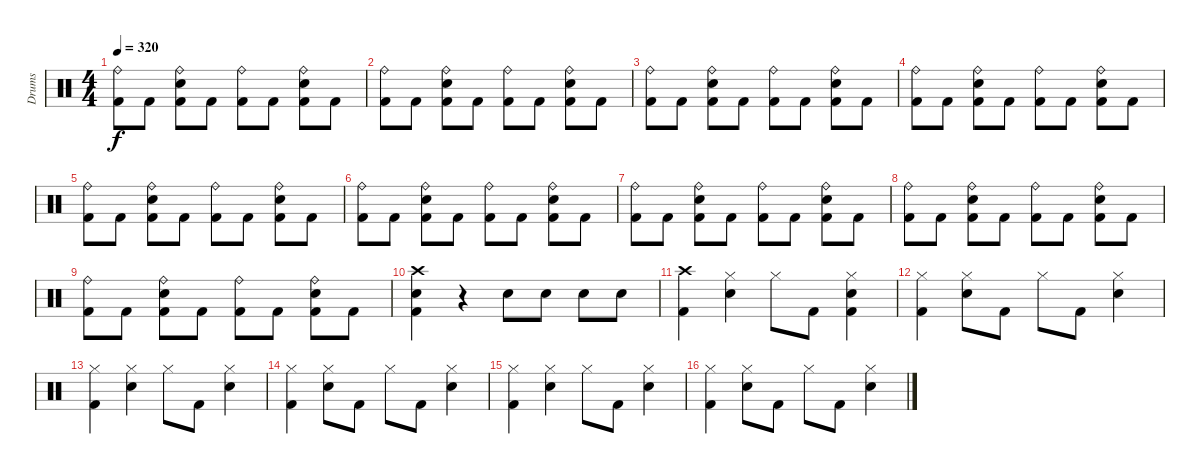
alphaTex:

\track ("Drums" "Drums") {instrument percussion}
\staff {score}
\articulation defaults
\ts (4 4)
\tempo 320
\clef neutral
\ks c
("Ride (bell)" "Kick (hit) 2").8{dy f} "Kick (hit) 2".8 ("Kick (hit) 2" "Ride (bell)" "Snare (hit) 2").8 "Kick (hit) 2".8 ("Ride (bell)" "Kick (hit) 2").8 "Kick (hit) 2".8 ("Ride (bell)" "Kick (hit) 2" "Snare (hit) 2").8 "Kick (hit) 2".8 |
("Kick (hit) 2" "Ride (bell)").8 "Kick (hit) 2".8 ("Ride (bell)" "Kick (hit) 2" "Snare (hit) 2").8 "Kick (hit) 2".8 ("Kick (hit) 2" "Ride (bell)").8 "Kick (hit) 2".8 ("Kick (hit) 2" "Snare (hit) 2" "Ride (bell)").8 "Kick (hit) 2".8 |
("Ride (bell)" "Kick (hit) 2").8 "Kick (hit) 2".8 ("Snare (hit) 2" "Ride (bell)" "Kick (hit) 2").8 "Kick (hit) 2".8 ("Ride (bell)" "Kick (hit) 2").8 "Kick (hit) 2".8 ("Snare (hit) 2" "Ride (bell)" "Kick (hit) 2").8 "Kick (hit) 2".8 |
("Ride (bell)" "Kick (hit) 2").8 "Kick (hit) 2".8 ("Kick (hit) 2" "Ride (bell)" "Snare (hit) 2").8 "Kick (hit) 2".8 ("Ride (bell)" "Kick (hit) 2").8 "Kick (hit) 2".8 ("Kick (hit) 2" "Ride (bell)" "Snare (hit) 2").8 "Kick (hit) 2".8 |
("Ride (bell)" "Kick (hit) 2").8 "Kick (hit) 2".8 ("Kick (hit) 2" "Snare (hit) 2" "Ride (bell)").8 "Kick (hit) 2".8 ("Ride (bell)" "Kick (hit) 2").8 "Kick (hit) 2".8 ("Snare (hit) 2" "Kick (hit) 2" "Ride (bell)").8 "Kick (hit) 2".8 |
("Ride (bell)" "Kick (hit) 2").8 "Kick (hit) 2".8 ("Ride (bell)" "Kick (hit) 2" "Snare (hit) 2").8 "Kick (hit) 2".8 ("Kick (hit) 2" "Ride (bell)").8 "Kick (hit) 2".8 ("Kick (hit) 2" "Ride (bell)" "Snare (hit) 2").8 "Kick (hit) 2".8 |
("Ride (bell)" "Kick (hit) 2").8 "Kick (hit) 2".8 ("Ride (bell)" "Kick (hit) 2" "Snare (hit) 2").8 "Kick (hit) 2".8 ("Ride (bell)" "Kick (hit) 2").8 "Kick (hit) 2".8 ("Kick (hit) 2" "Ride (bell)" "Snare (hit) 2").8 "Kick (hit) 2".8 |
("Ride (bell)" "Kick (hit) 2").8 "Kick (hit) 2".8 ("Ride (bell)" "Kick (hit) 2" "Snare (hit) 2").8 "Kick (hit) 2".8 ("Ride (bell)" "Kick (hit) 2").8 "Kick (hit) 2".8 ("Kick (hit) 2" "Ride (bell)" "Snare (hit) 2").8 "Kick (hit) 2".8 |
("Ride (bell)" "Kick (hit) 2").8 "Kick (hit) 2".8 ("Snare (hit) 2" "Kick (hit) 2" "Ride (bell)").8 "Kick (hit) 2".8 ("Ride (bell)" "Kick (hit) 2").8 "Kick (hit) 2".8 ("Ride (bell)" "Kick (hit) 2" "Snare (hit) 2").8 "Kick (hit) 2".8 |
("Kick (hit) 2" "Snare (hit) 2" "Crash high (hit)").4 r.4 "Snare (hit) 2".8 "Snare (hit) 2".8 "Snare (hit) 2".8 "Snare (hit) 2".8 |
("Kick (hit) 2" "Crash high (hit)").4 ("Snare (hit) 2" "Hi-Hat (closed)").4 "Hi-Hat (closed)".8 "Kick (hit) 2".8 ("Hi-Hat (closed)" "Kick (hit) 2" "Snare (hit) 2").4 |
("Kick (hit) 2" "Hi-Hat (closed)").4 ("Snare (hit) 2" "Hi-Hat (closed)").8 "Kick (hit) 2".8 "Hi-Hat (closed)".8 "Kick (hit) 2".8 ("Hi-Hat (closed)" "Snare (hit) 2").4 |
("Kick (hit) 2" "Hi-Hat (closed)").4 ("Snare (hit) 2" "Hi-Hat (closed)").4 "Hi-Hat (closed)".8 "Kick (hit) 2".8 ("Hi-Hat (closed)" "Snare (hit) 2").4 |
("Kick (hit) 2" "Hi-Hat (closed)").4 ("Hi-Hat (closed)" "Snare (hit) 2").8 "Kick (hit) 2".8 "Hi-Hat (closed)".8 "Kick (hit) 2".8 ("Snare (hit) 2" "Hi-Hat (closed)").4 |
("Kick (hit) 2" "Hi-Hat (closed)").4 ("Snare (hit) 2" "Hi-Hat (closed)").4 "Hi-Hat (closed)".8 "Kick (hit) 2".8 ("Snare (hit) 2" "Hi-Hat (closed)").4 |
("Kick (hit) 2" "Hi-Hat (closed)").4 ("Hi-Hat (closed)" "Snare (hit) 2").8 "Kick (hit) 2".8 "Hi-Hat (closed)".8 "Kick (hit) 2".8 ("Snare (hit) 2" "Hi-Hat (closed)").4
